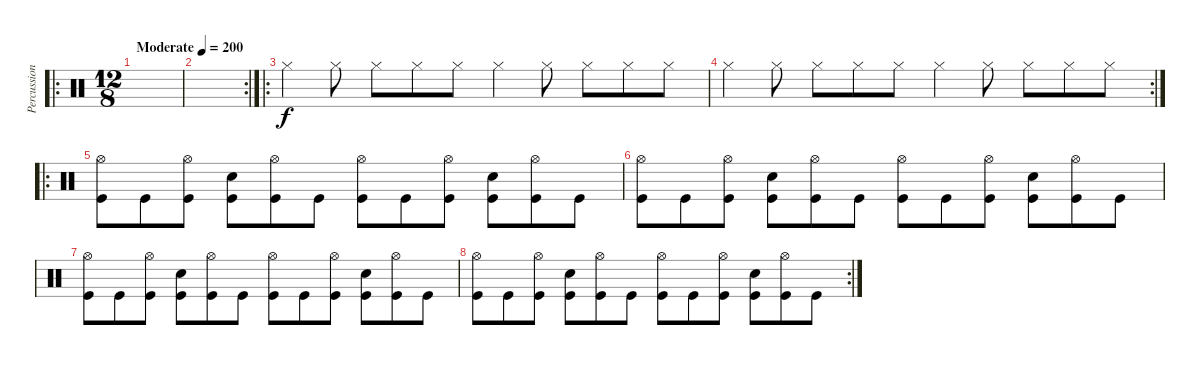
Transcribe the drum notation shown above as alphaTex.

\track ("Percussion" "Percussion") {instrument percussion}
\staff {score}
\articulation defaults
\ro
\ts (12 8)
\tempo (200 "Moderate")
\clef neutral
\ks c
|
\rc 2
|
\ro "Hi-Hat (closed)".4 "Hi-Hat (closed)".8 "Hi-Hat (closed)".8 "Hi-Hat (closed)".8 "Hi-Hat (closed)".8 "Hi-Hat (closed)".4 "Hi-Hat (closed)".8 "Hi-Hat (closed)".8 "Hi-Hat (closed)".8 "Hi-Hat (closed)".8
|
\rc 2 "Hi-Hat (closed)".4 "Hi-Hat (closed)".8 "Hi-Hat (closed)".8 "Hi-Hat (closed)".8 "Hi-Hat (closed)".8 "Hi-Hat (closed)".4 "Hi-Hat (closed)".8 "Hi-Hat (closed)".8 "Hi-Hat (closed)".8 "Hi-Hat (closed)".8
|
\ro
("Hi-Hat (open)" "Kick (hit)").8 "Kick (hit)".8 ("Hi-Hat (open)" "Kick (hit)").8 ("Snare (hit) 2" "Kick (hit)").8 ("Hi-Hat (open)" "Kick (hit)").8 "Kick (hit)".8 ("Hi-Hat (open)" "Kick (hit)").8 "Kick (hit)".8 ("Hi-Hat (open)" "Kick (hit)").8 ("Snare (hit) 2" "Kick (hit)").8 ("Hi-Hat (open)" "Kick (hit)").8 "Kick (hit)".8 |
("Hi-Hat (open)" "Kick (hit)").8 "Kick (hit)".8 ("Hi-Hat (open)" "Kick (hit)").8 ("Snare (hit) 2" "Kick (hit)").8 ("Hi-Hat (open)" "Kick (hit)").8 "Kick (hit)".8 ("Hi-Hat (open)" "Kick (hit)").8 "Kick (hit)".8 ("Hi-Hat (open)" "Kick (hit)").8 ("Snare (hit) 2" "Kick (hit)").8 ("Hi-Hat (open)" "Kick (hit)").8 "Kick (hit)".8 |
("Hi-Hat (open)" "Kick (hit)").8 "Kick (hit)".8 ("Hi-Hat (open)" "Kick (hit)").8 ("Snare (hit) 2" "Kick (hit)").8 ("Hi-Hat (open)" "Kick (hit)").8 "Kick (hit)".8 ("Hi-Hat (open)" "Kick (hit)").8 "Kick (hit)".8 ("Hi-Hat (open)" "Kick (hit)").8 ("Snare (hit) 2" "Kick (hit)").8 ("Hi-Hat (open)" "Kick (hit)").8 "Kick (hit)".8 |
\rc 2
("Hi-Hat (open)" "Kick (hit)").8 "Kick (hit)".8 ("Hi-Hat (open)" "Kick (hit)").8 ("Snare (hit) 2" "Kick (hit)").8 ("Hi-Hat (open)" "Kick (hit)").8 "Kick (hit)".8 ("Hi-Hat (open)" "Kick (hit)").8 "Kick (hit)".8 ("Hi-Hat (open)" "Kick (hit)").8 ("Snare (hit) 2" "Kick (hit)").8 ("Hi-Hat (open)" "Kick (hit)").8 "Kick (hit)".8
